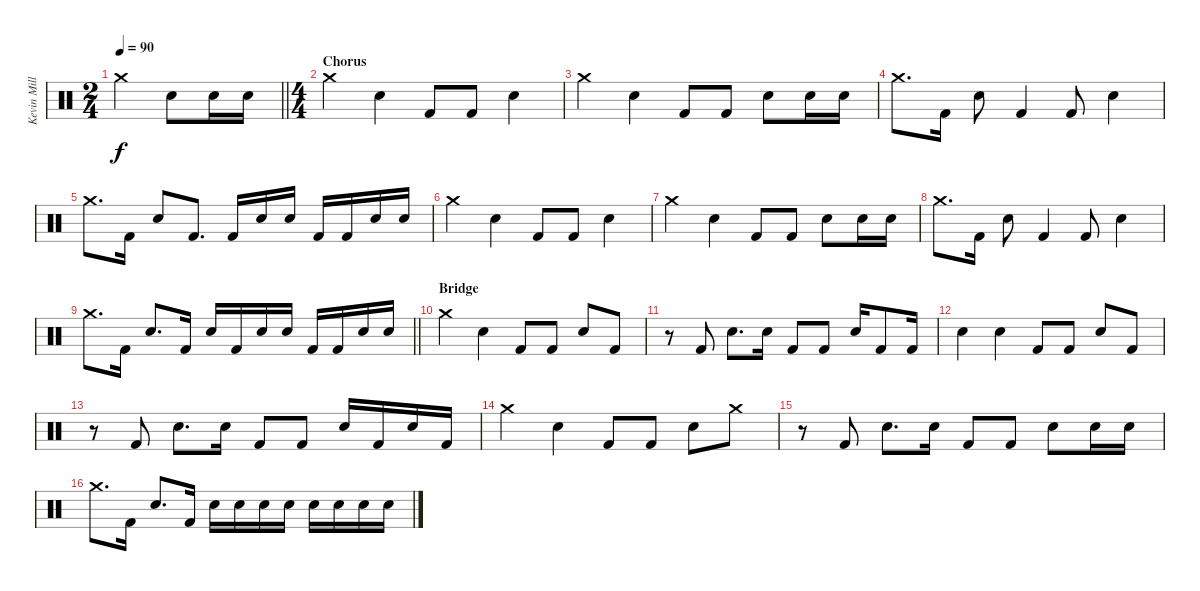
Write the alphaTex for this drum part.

\track ("Kevin Miller (Drums)" "Kevin Mill") {instrument percussion}
\staff {score}
\articulation defaults
\ts (2 4)
\tempo 90
\clef neutral
\barLineRight lightlight
\ks c "Crash medium (hit)".4{dy f} "Electric Snare (hit)".8 "Electric Snare (hit)".16 "Electric Snare (hit)".16
|
\ts (4 4)
\section ("" "Chorus")
"Crash medium (hit)".4 "Electric Snare (hit)".4 "Kick (hit) 2".8 "Kick (hit) 2".8 "Electric Snare (hit)".4 |
"Crash medium (hit)".4 "Electric Snare (hit)".4 "Kick (hit) 2".8 "Kick (hit) 2".8 "Electric Snare (hit)".8 "Electric Snare (hit)".16 "Electric Snare (hit)".16 |
"Crash medium (hit)".8{d} "Kick (hit) 2".16 "Electric Snare (hit)".8 "Kick (hit) 2".4 "Kick (hit) 2".8 "Electric Snare (hit)".4 |
"Crash medium (hit)".8{d} "Kick (hit) 2".16 "Electric Snare (hit)".8 "Kick (hit) 2".8{d} "Kick (hit) 2".16 "Electric Snare (hit)".16 "Electric Snare (hit)".16 "Kick (hit) 2".16 "Kick (hit) 2".16 "Electric Snare (hit)".16 "Electric Snare (hit)".16 |
"Crash medium (hit)".4 "Electric Snare (hit)".4 "Kick (hit) 2".8 "Kick (hit) 2".8 "Electric Snare (hit)".4 |
"Crash medium (hit)".4 "Electric Snare (hit)".4 "Kick (hit) 2".8 "Kick (hit) 2".8 "Electric Snare (hit)".8 "Electric Snare (hit)".16 "Electric Snare (hit)".16 |
"Crash medium (hit)".8{d} "Kick (hit) 2".16 "Electric Snare (hit)".8 "Kick (hit) 2".4 "Kick (hit) 2".8 "Electric Snare (hit)".4 |
\barLineRight lightlight "Crash medium (hit)".8{d} "Kick (hit) 2".16 "Electric Snare (hit)".8{d} "Kick (hit) 2".16 "Electric Snare (hit)".16 "Kick (hit) 2".16 "Electric Snare (hit)".16 "Electric Snare (hit)".16 "Kick (hit) 2".16 "Kick (hit) 2".16 "Electric Snare (hit)".16 "Electric Snare (hit)".16
|
\section ("" "Bridge")
"Crash medium (hit)".4 "Electric Snare (hit)".4 "Kick (hit) 2".8 "Kick (hit) 2".8 "Electric Snare (hit)".8 "Kick (hit) 2".8 |
r.8 "Kick (hit) 2".8 "Electric Snare (hit)".8{d} "Electric Snare (hit)".16 "Kick (hit) 2".8 "Kick (hit) 2".8 "Electric Snare (hit)".16 "Kick (hit) 2".8 "Kick (hit) 2".16 |
"Electric Snare (hit)".4 "Electric Snare (hit)".4 "Kick (hit) 2".8 "Kick (hit) 2".8 "Electric Snare (hit)".8 "Kick (hit) 2".8 |
r.8 "Kick (hit) 2".8 "Electric Snare (hit)".8{d} "Electric Snare (hit)".16 "Kick (hit) 2".8 "Kick (hit) 2".8 "Electric Snare (hit)".16 "Kick (hit) 2".16 "Electric Snare (hit)".16 "Kick (hit) 2".16 |
"Crash medium (hit)".4 "Electric Snare (hit)".4 "Kick (hit) 2".8 "Kick (hit) 2".8 "Electric Snare (hit)".8 "Crash medium (hit)".8 |
r.8 "Kick (hit) 2".8 "Electric Snare (hit)".8{d} "Electric Snare (hit)".16 "Kick (hit) 2".8 "Kick (hit) 2".8 "Electric Snare (hit)".8 "Electric Snare (hit)".16 "Electric Snare (hit)".16 |
"Crash medium (hit)".8{d} "Kick (hit) 2".16 "Electric Snare (hit)".8{d} "Kick (hit) 2".16 "Electric Snare (hit)".16 "Electric Snare (hit)".16 "Electric Snare (hit)".16 "Electric Snare (hit)".16 "Electric Snare (hit)".16 "Electric Snare (hit)".16 "Electric Snare (hit)".16 "Electric Snare (hit)".16
